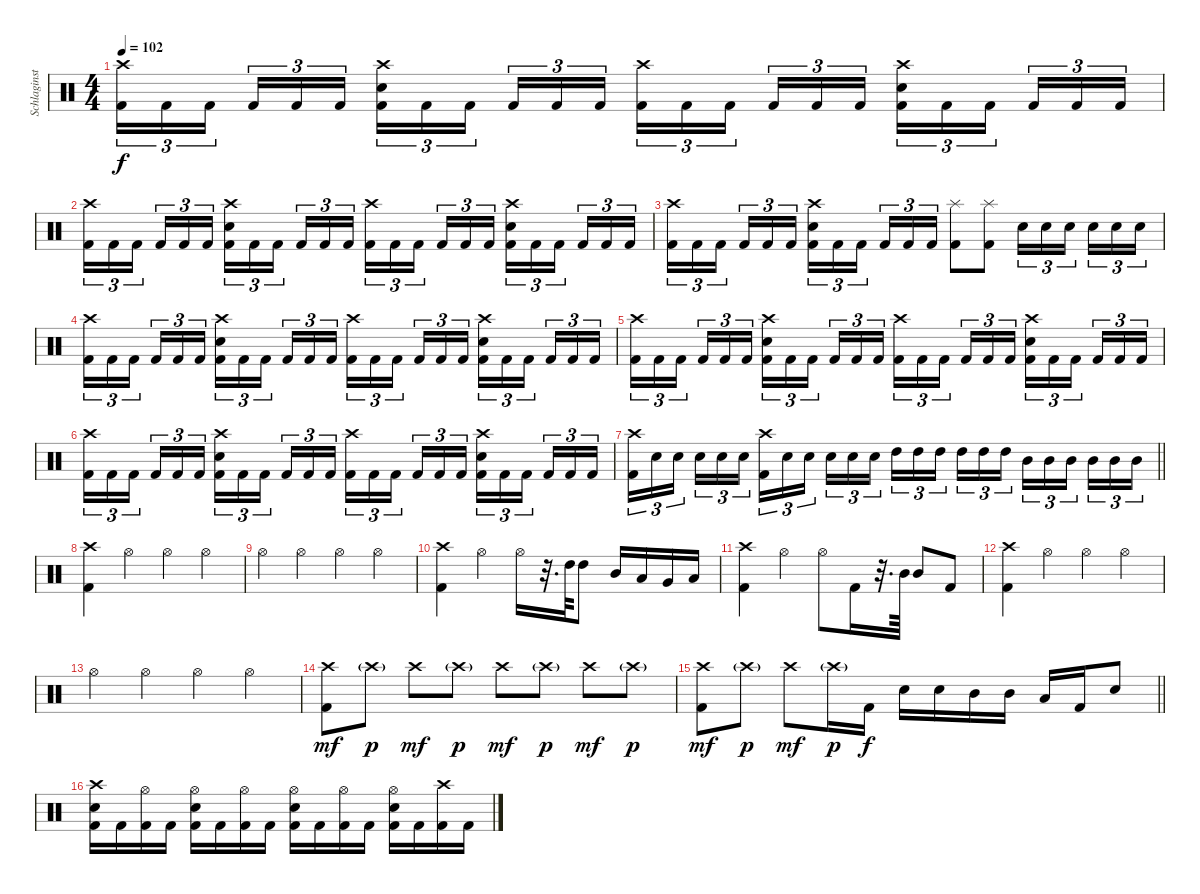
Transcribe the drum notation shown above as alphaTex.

\track ("Schlaginstrumente - Auswahl" "Schlaginst") {instrument percussion}
\staff {score}
\articulation defaults
\ts (4 4)
\tempo 102
\clef neutral
\ks c
("Crash high (hit)" "Kick (hit) 2").16{tu (3 2) dy f} "Kick (hit) 2".16{tu (3 2)} "Kick (hit) 2".16{tu (3 2) beam splitsecondary} "Kick (hit) 2".16{tu (3 2)} "Kick (hit) 2".16{tu (3 2)} "Kick (hit) 2".16{tu (3 2)} ("Crash high (hit)" "Snare (hit) 2" "Kick (hit) 2").16{tu (3 2)} "Kick (hit) 2".16{tu (3 2)} "Kick (hit) 2".16{tu (3 2) beam splitsecondary} "Kick (hit) 2".16{tu (3 2)} "Kick (hit) 2".16{tu (3 2)} "Kick (hit) 2".16{tu (3 2)} ("Crash high (hit)" "Kick (hit) 2").16{tu (3 2)} "Kick (hit) 2".16{tu (3 2)} "Kick (hit) 2".16{tu (3 2) beam splitsecondary} "Kick (hit) 2".16{tu (3 2)} "Kick (hit) 2".16{tu (3 2)} "Kick (hit) 2".16{tu (3 2)} ("Crash high (hit)" "Snare (hit) 2" "Kick (hit) 2").16{tu (3 2)} "Kick (hit) 2".16{tu (3 2)} "Kick (hit) 2".16{tu (3 2) beam splitsecondary} "Kick (hit) 2".16{tu (3 2)} "Kick (hit) 2".16{tu (3 2)} "Kick (hit) 2".16{tu (3 2)} |
("Crash high (hit)" "Kick (hit) 2").16{tu (3 2)} "Kick (hit) 2".16{tu (3 2)} "Kick (hit) 2".16{tu (3 2) beam splitsecondary} "Kick (hit) 2".16{tu (3 2)} "Kick (hit) 2".16{tu (3 2)} "Kick (hit) 2".16{tu (3 2)} ("Crash high (hit)" "Snare (hit) 2" "Kick (hit) 2").16{tu (3 2)} "Kick (hit) 2".16{tu (3 2)} "Kick (hit) 2".16{tu (3 2) beam splitsecondary} "Kick (hit) 2".16{tu (3 2)} "Kick (hit) 2".16{tu (3 2)} "Kick (hit) 2".16{tu (3 2)} ("Crash high (hit)" "Kick (hit) 2").16{tu (3 2)} "Kick (hit) 2".16{tu (3 2)} "Kick (hit) 2".16{tu (3 2) beam splitsecondary} "Kick (hit) 2".16{tu (3 2)} "Kick (hit) 2".16{tu (3 2)} "Kick (hit) 2".16{tu (3 2)} ("Crash high (hit)" "Snare (hit) 2" "Kick (hit) 2").16{tu (3 2)} "Kick (hit) 2".16{tu (3 2)} "Kick (hit) 2".16{tu (3 2) beam splitsecondary} "Kick (hit) 2".16{tu (3 2)} "Kick (hit) 2".16{tu (3 2)} "Kick (hit) 2".16{tu (3 2)} |
("Crash high (hit)" "Kick (hit) 2").16{tu (3 2)} "Kick (hit) 2".16{tu (3 2)} "Kick (hit) 2".16{tu (3 2) beam splitsecondary} "Kick (hit) 2".16{tu (3 2)} "Kick (hit) 2".16{tu (3 2)} "Kick (hit) 2".16{tu (3 2)} ("Crash high (hit)" "Snare (hit) 2" "Kick (hit) 2").16{tu (3 2)} "Kick (hit) 2".16{tu (3 2)} "Kick (hit) 2".16{tu (3 2) beam splitsecondary} "Kick (hit) 2".16{tu (3 2)} "Kick (hit) 2".16{tu (3 2)} "Kick (hit) 2".16{tu (3 2)} ("Splash (hit)" "Kick (hit) 2").8 ("Splash (hit)" "Kick (hit) 2").8 "Snare (hit) 2".16{tu (3 2)} "Snare (hit) 2".16{tu (3 2)} "Snare (hit) 2".16{tu (3 2) beam splitsecondary} "Snare (hit) 2".16{tu (3 2)} "Snare (hit) 2".16{tu (3 2)} "Snare (hit) 2".16{tu (3 2)} |
("Crash high (hit)" "Kick (hit) 2").16{tu (3 2)} "Kick (hit) 2".16{tu (3 2)} "Kick (hit) 2".16{tu (3 2) beam splitsecondary} "Kick (hit) 2".16{tu (3 2)} "Kick (hit) 2".16{tu (3 2)} "Kick (hit) 2".16{tu (3 2)} ("Crash high (hit)" "Snare (hit) 2" "Kick (hit) 2").16{tu (3 2)} "Kick (hit) 2".16{tu (3 2)} "Kick (hit) 2".16{tu (3 2) beam splitsecondary} "Kick (hit) 2".16{tu (3 2)} "Kick (hit) 2".16{tu (3 2)} "Kick (hit) 2".16{tu (3 2)} ("Crash high (hit)" "Kick (hit) 2").16{tu (3 2)} "Kick (hit) 2".16{tu (3 2)} "Kick (hit) 2".16{tu (3 2) beam splitsecondary} "Kick (hit) 2".16{tu (3 2)} "Kick (hit) 2".16{tu (3 2)} "Kick (hit) 2".16{tu (3 2)} ("Crash high (hit)" "Snare (hit) 2" "Kick (hit) 2").16{tu (3 2)} "Kick (hit) 2".16{tu (3 2)} "Kick (hit) 2".16{tu (3 2) beam splitsecondary} "Kick (hit) 2".16{tu (3 2)} "Kick (hit) 2".16{tu (3 2)} "Kick (hit) 2".16{tu (3 2)} |
("Crash high (hit)" "Kick (hit) 2").16{tu (3 2)} "Kick (hit) 2".16{tu (3 2)} "Kick (hit) 2".16{tu (3 2) beam splitsecondary} "Kick (hit) 2".16{tu (3 2)} "Kick (hit) 2".16{tu (3 2)} "Kick (hit) 2".16{tu (3 2)} ("Crash high (hit)" "Snare (hit) 2" "Kick (hit) 2").16{tu (3 2)} "Kick (hit) 2".16{tu (3 2)} "Kick (hit) 2".16{tu (3 2) beam splitsecondary} "Kick (hit) 2".16{tu (3 2)} "Kick (hit) 2".16{tu (3 2)} "Kick (hit) 2".16{tu (3 2)} ("Crash high (hit)" "Kick (hit) 2").16{tu (3 2)} "Kick (hit) 2".16{tu (3 2)} "Kick (hit) 2".16{tu (3 2) beam splitsecondary} "Kick (hit) 2".16{tu (3 2)} "Kick (hit) 2".16{tu (3 2)} "Kick (hit) 2".16{tu (3 2)} ("Crash high (hit)" "Snare (hit) 2" "Kick (hit) 2").16{tu (3 2)} "Kick (hit) 2".16{tu (3 2)} "Kick (hit) 2".16{tu (3 2) beam splitsecondary} "Kick (hit) 2".16{tu (3 2)} "Kick (hit) 2".16{tu (3 2)} "Kick (hit) 2".16{tu (3 2)} |
("Crash high (hit)" "Kick (hit) 2").16{tu (3 2)} "Kick (hit) 2".16{tu (3 2)} "Kick (hit) 2".16{tu (3 2) beam splitsecondary} "Kick (hit) 2".16{tu (3 2)} "Kick (hit) 2".16{tu (3 2)} "Kick (hit) 2".16{tu (3 2)} ("Crash high (hit)" "Snare (hit) 2" "Kick (hit) 2").16{tu (3 2)} "Kick (hit) 2".16{tu (3 2)} "Kick (hit) 2".16{tu (3 2) beam splitsecondary} "Kick (hit) 2".16{tu (3 2)} "Kick (hit) 2".16{tu (3 2)} "Kick (hit) 2".16{tu (3 2)} ("Crash high (hit)" "Kick (hit) 2").16{tu (3 2)} "Kick (hit) 2".16{tu (3 2)} "Kick (hit) 2".16{tu (3 2) beam splitsecondary} "Kick (hit) 2".16{tu (3 2)} "Kick (hit) 2".16{tu (3 2)} "Kick (hit) 2".16{tu (3 2)} ("Crash high (hit)" "Snare (hit) 2" "Kick (hit) 2").16{tu (3 2)} "Kick (hit) 2".16{tu (3 2)} "Kick (hit) 2".16{tu (3 2) beam splitsecondary} "Kick (hit) 2".16{tu (3 2)} "Kick (hit) 2".16{tu (3 2)} "Kick (hit) 2".16{tu (3 2)} |
\barLineRight lightlight
("Crash high (hit)" "Kick (hit) 2").16{tu (3 2)} "Snare (hit) 2".16{tu (3 2)} "Snare (hit) 2".16{tu (3 2) beam splitsecondary} "Snare (hit) 2".16{tu (3 2)} "Snare (hit) 2".16{tu (3 2)} "Snare (hit) 2".16{tu (3 2)} ("Crash high (hit)" "Kick (hit) 2").16{tu (3 2)} "Snare (hit) 2".16{tu (3 2)} "Snare (hit) 2".16{tu (3 2) beam splitsecondary} "Snare (hit) 2".16{tu (3 2)} "Snare (hit) 2".16{tu (3 2)} "Snare (hit) 2".16{tu (3 2)} "High Tom (hit)".16{tu (3 2)} "High Tom (hit)".16{tu (3 2)} "High Tom (hit)".16{tu (3 2) beam splitsecondary} "High Tom (hit)".16{tu (3 2)} "High Tom (hit)".16{tu (3 2)} "High Tom (hit)".16{tu (3 2)} "Mid Tom (hit)".16{tu (3 2)} "Mid Tom (hit)".16{tu (3 2)} "Mid Tom (hit)".16{tu (3 2) beam splitsecondary} "Mid Tom (hit)".16{tu (3 2)} "Mid Tom (hit)".16{tu (3 2)} "Mid Tom (hit)".16{tu (3 2)} |
("Crash high (hit)" "Kick (hit) 2").4 "Hi-Hat (open)".4 "Hi-Hat (open)".4 "Hi-Hat (open)".4 |
"Hi-Hat (open)".4 "Hi-Hat (open)".4 "Hi-Hat (open)".4 "Hi-Hat (open)".4 |
("Crash high (hit)" "Kick (hit) 2").4 "Hi-Hat (open)".4 "Hi-Hat (open)".16 r.32{d} "High Tom (hit)".64 "High Tom (hit)".8 "Mid Tom (hit)".16 "Low Tom (hit)".16 "Very Low Tom (hit)".16 "Low Floor Tom (hit)".16 |
("Crash high (hit)" "Kick (hit) 2").4 "Hi-Hat (open)".4 "Hi-Hat (open)".8 "Kick (hit) 2".16 r.32{d} "Mid Tom (hit)".64 "Mid Tom (hit)".8 "Kick (hit) 2".8 |
("Crash high (hit)" "Kick (hit) 2").4 "Hi-Hat (open)".4 "Hi-Hat (open)".4 "Hi-Hat (open)".4 |
"Hi-Hat (open)".4 "Hi-Hat (open)".4 "Hi-Hat (open)".4 "Hi-Hat (open)".4 |
("Crash high (hit)" "Kick (hit) 2").8{dy mf} "Crash high (hit)"{g}.8{dy p} "Crash high (hit)".8{dy mf} "Crash high (hit)"{g}.8{dy p} "Crash high (hit)".8{dy mf} "Crash high (hit)"{g}.8{dy p} "Crash high (hit)".8{dy mf} "Crash high (hit)"{g}.8{dy p} |
\barLineRight lightlight
("Crash high (hit)" "Kick (hit) 2").8{dy mf} "Crash high (hit)"{g}.8{dy p} "Crash high (hit)".8{dy mf} "Crash high (hit)"{g}.16{dy p} "Kick (hit) 2".16{dy f} "Snare (hit) 2".16 "Snare (hit) 2".16 "Mid Tom (hit)".16 "Mid Tom (hit)".16 "Low Tom (hit)".16 "Kick (hit) 2".16 "Snare (hit) 2".8 |
("Crash high (hit)" "Snare (hit) 2" "Kick (hit) 2").16 "Kick (hit) 2".16 ("Hi-Hat (open)" "Kick (hit) 2").16 "Kick (hit) 2".16 ("Hi-Hat (open)" "Snare (hit) 2" "Kick (hit) 2").16 "Kick (hit) 2".16 ("Hi-Hat (open)" "Kick (hit) 2").16 "Kick (hit) 2".16 ("Hi-Hat (open)" "Snare (hit) 2" "Kick (hit) 2").16 "Kick (hit) 2".16 ("Hi-Hat (open)" "Kick (hit) 2").16 "Kick (hit) 2".16 ("Hi-Hat (open)" "Snare (hit) 2" "Kick (hit) 2").16 "Kick (hit) 2".16 ("Crash high (hit)" "Kick (hit) 2").16 "Kick (hit) 2".16
